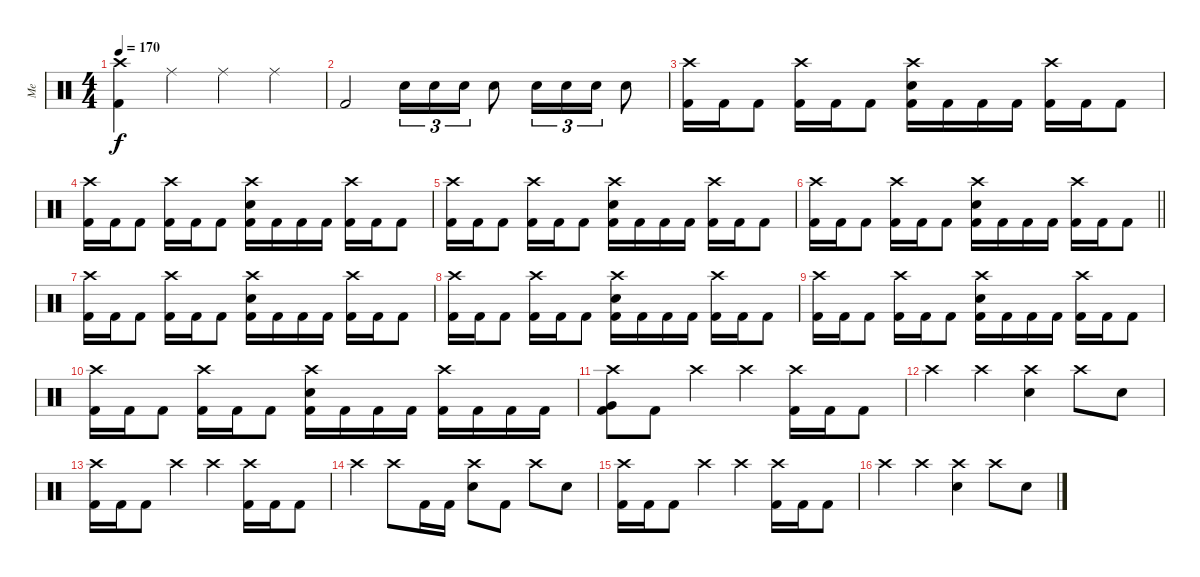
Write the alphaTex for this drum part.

\track ("Me" "Me") {instrument percussion}
\staff {score}
\articulation defaults
\ts (4 4)
\tempo 180
\tempo 170
\clef neutral
\ks c
("Crash high (hit)" "Kick (hit) 2").4{dy f} "Ride (middle)".4 "Ride (middle)".4 "Ride (middle)".4 |
"Kick (hit) 2".2 "Snare (hit) 2".16{tu (3 2)} "Snare (hit) 2".16{tu (3 2)} "Snare (hit) 2".16{tu (3 2)} "Snare (hit) 2".8 "Snare (hit) 2".16{tu (3 2)} "Snare (hit) 2".16{tu (3 2)} "Snare (hit) 2".16{tu (3 2)} "Snare (hit) 2".8 |
("Crash high (hit)" "Kick (hit) 2").16{volume 13} "Kick (hit) 2".16 "Kick (hit) 2".8 ("Crash high (hit)" "Kick (hit) 2").16 "Kick (hit) 2".16 "Kick (hit) 2".8 ("Crash high (hit)" "Snare (hit) 2" "Kick (hit) 2").16 "Kick (hit) 2".16 "Kick (hit) 2".16 "Kick (hit) 2".16 ("Crash high (hit)" "Kick (hit) 2").16 "Kick (hit) 2".16 "Kick (hit) 2".8 |
("Crash high (hit)" "Kick (hit) 2").16 "Kick (hit) 2".16 "Kick (hit) 2".8 ("Crash high (hit)" "Kick (hit) 2").16 "Kick (hit) 2".16 "Kick (hit) 2".8 ("Crash high (hit)" "Snare (hit) 2" "Kick (hit) 2").16 "Kick (hit) 2".16 "Kick (hit) 2".16 "Kick (hit) 2".16 ("Crash high (hit)" "Kick (hit) 2").16 "Kick (hit) 2".16 "Kick (hit) 2".8 |
("Crash high (hit)" "Kick (hit) 2").16 "Kick (hit) 2".16 "Kick (hit) 2".8 ("Crash high (hit)" "Kick (hit) 2").16 "Kick (hit) 2".16 "Kick (hit) 2".8 ("Crash high (hit)" "Snare (hit) 2" "Kick (hit) 2").16 "Kick (hit) 2".16 "Kick (hit) 2".16 "Kick (hit) 2".16 ("Crash high (hit)" "Kick (hit) 2").16 "Kick (hit) 2".16 "Kick (hit) 2".8 |
\barLineRight lightlight
("Crash high (hit)" "Kick (hit) 2").16 "Kick (hit) 2".16 "Kick (hit) 2".8 ("Crash high (hit)" "Kick (hit) 2").16 "Kick (hit) 2".16 "Kick (hit) 2".8 ("Crash high (hit)" "Snare (hit) 2" "Kick (hit) 2").16 "Kick (hit) 2".16 "Kick (hit) 2".16 "Kick (hit) 2".16 ("Crash high (hit)" "Kick (hit) 2").16 "Kick (hit) 2".16 "Kick (hit) 2".8 |
("Crash high (hit)" "Kick (hit) 2").16 "Kick (hit) 2".16 "Kick (hit) 2".8 ("Crash high (hit)" "Kick (hit) 2").16 "Kick (hit) 2".16 "Kick (hit) 2".8 ("Crash high (hit)" "Snare (hit) 2" "Kick (hit) 2").16 "Kick (hit) 2".16 "Kick (hit) 2".16 "Kick (hit) 2".16 ("Crash high (hit)" "Kick (hit) 2").16 "Kick (hit) 2".16 "Kick (hit) 2".8 |
("Crash high (hit)" "Kick (hit) 2").16 "Kick (hit) 2".16 "Kick (hit) 2".8 ("Crash high (hit)" "Kick (hit) 2").16 "Kick (hit) 2".16 "Kick (hit) 2".8 ("Crash high (hit)" "Snare (hit) 2" "Kick (hit) 2").16 "Kick (hit) 2".16 "Kick (hit) 2".16 "Kick (hit) 2".16 ("Crash high (hit)" "Kick (hit) 2").16 "Kick (hit) 2".16 "Kick (hit) 2".8 |
("Crash high (hit)" "Kick (hit) 2").16 "Kick (hit) 2".16 "Kick (hit) 2".8 ("Crash high (hit)" "Kick (hit) 2").16 "Kick (hit) 2".16 "Kick (hit) 2".8 ("Crash high (hit)" "Snare (hit) 2" "Kick (hit) 2").16 "Kick (hit) 2".16 "Kick (hit) 2".16 "Kick (hit) 2".16 ("Crash high (hit)" "Kick (hit) 2").16 "Kick (hit) 2".16 "Kick (hit) 2".8 |
("Crash high (hit)" "Kick (hit) 2").16 "Kick (hit) 2".16 "Kick (hit) 2".8 ("Crash high (hit)" "Kick (hit) 2").16 "Kick (hit) 2".16 "Kick (hit) 2".8 ("Crash high (hit)" "Snare (hit) 2" "Kick (hit) 2").16 "Kick (hit) 2".16 "Kick (hit) 2".16 "Kick (hit) 2".16 ("Crash high (hit)" "Kick (hit) 2").16 "Kick (hit) 2".16 "Kick (hit) 2".16 "Kick (hit) 2".16 |
("Crash high (hit)" "Very Low Tom (hit)" "Kick (hit) 2").8 "Kick (hit) 2".8 "Crash high (hit)".4 "Crash high (hit)".4 ("Crash high (hit)" "Kick (hit) 2").16 "Kick (hit) 2".16 "Kick (hit) 2".8 |
"Crash high (hit)".4 "Crash high (hit)".4 ("Crash high (hit)" "Snare (hit) 2").4 "Crash high (hit)".8 "Snare (hit) 2".8 |
("Crash high (hit)" "Kick (hit) 2").16 "Kick (hit) 2".16 "Kick (hit) 2".8 "Crash high (hit)".4 "Crash high (hit)".4 ("Crash high (hit)" "Kick (hit) 2").16 "Kick (hit) 2".16 "Kick (hit) 2".8 |
"Crash high (hit)".4 "Crash high (hit)".8 "Kick (hit) 2".16 "Kick (hit) 2".16 ("Crash high (hit)" "Snare (hit) 2").8 "Kick (hit) 2".8 "Crash high (hit)".8 "Snare (hit) 2".8 |
("Crash high (hit)" "Kick (hit) 2").16 "Kick (hit) 2".16 "Kick (hit) 2".8 "Crash high (hit)".4 "Crash high (hit)".4 ("Crash high (hit)" "Kick (hit) 2").16 "Kick (hit) 2".16 "Kick (hit) 2".8 |
"Crash high (hit)".4 "Crash high (hit)".4 ("Crash high (hit)" "Snare (hit) 2").4 "Crash high (hit)".8 "Snare (hit) 2".8
